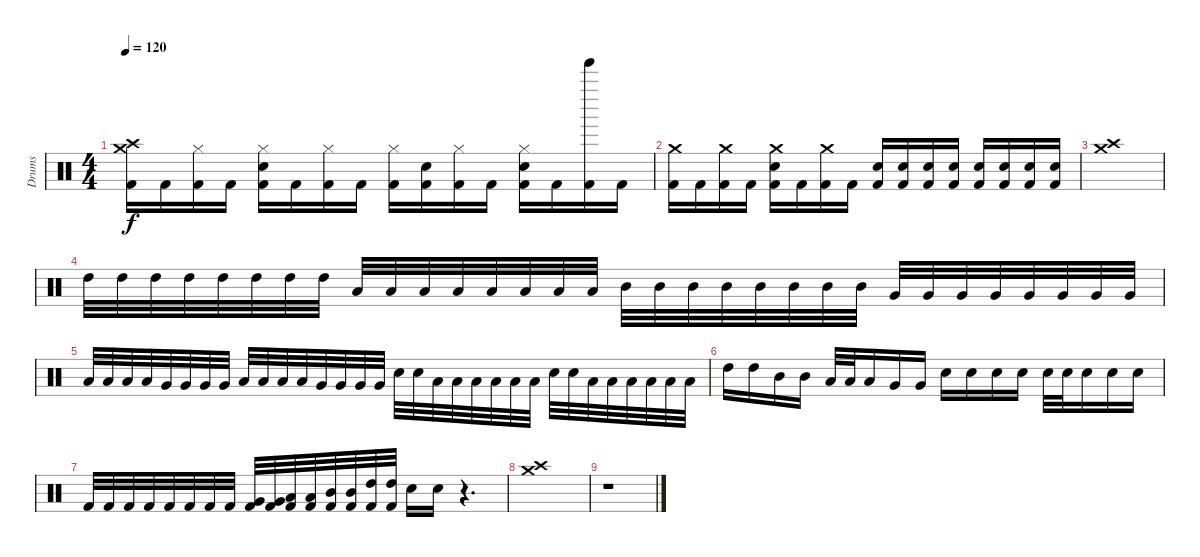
\track ("Drums" "Drums") {instrument percussion}
\staff {score}
\articulation defaults
\ts (4 4)
\tempo 120
\clef neutral
\ks c
("Crash medium (hit)" "Kick (hit) 2" "Crash high (hit)").16{dy f} "Kick (hit) 2".16 ("Hi-Hat (closed)" "Kick (hit) 2").16 "Kick (hit) 2".16 ("Hi-Hat (closed)" "Kick (hit) 2" "Snare (hit) 2").16 "Kick (hit) 2".16 ("Hi-Hat (closed)" "Kick (hit) 2").16 "Kick (hit) 2".16 ("Hi-Hat (closed)" "Kick (hit) 2").16 ("Kick (hit) 2" "Snare (hit) 2").16 ("Hi-Hat (closed)" "Kick (hit) 2").16 "Kick (hit) 2".16 ("Hi-Hat (closed)" "Kick (hit) 2" "Snare (hit) 2").16 "Kick (hit) 2".16 ("Tinkle Bell (hit)" "Kick (hit) 2").16 "Kick (hit) 2".16 |
("Crash medium (hit)" "Kick (hit) 2").16 "Kick (hit) 2".16 ("Crash medium (hit)" "Kick (hit) 2").16 "Kick (hit) 2".16 ("Crash medium (hit)" "Kick (hit) 2" "Snare (hit) 2").16 "Kick (hit) 2".16 ("Crash medium (hit)" "Kick (hit) 2").16 "Kick (hit) 2".16 ("Kick (hit) 2" "Snare (hit) 2").16 ("Kick (hit) 2" "Snare (hit) 2").16 ("Kick (hit) 2" "Snare (hit) 2").16 ("Kick (hit) 2" "Snare (hit) 2").16 ("Kick (hit) 2" "Snare (hit) 2").16 ("Kick (hit) 2" "Snare (hit) 2").16 ("Kick (hit) 2" "Snare (hit) 2").16 ("Kick (hit) 2" "Snare (hit) 2").16 |
("Crash medium (hit)" "Crash high (hit)").1 |
"High Tom (hit)".32 "High Tom (hit)".32 "High Tom (hit)".32 "High Tom (hit)".32 "High Tom (hit)".32 "High Tom (hit)".32 "High Tom (hit)".32 "High Tom (hit)".32 "Low Tom (hit)".32 "Low Tom (hit)".32 "Low Tom (hit)".32 "Low Tom (hit)".32 "Low Tom (hit)".32 "Low Tom (hit)".32 "Low Tom (hit)".32 "Low Tom (hit)".32 "Mid Tom (hit)".32 "Mid Tom (hit)".32 "Mid Tom (hit)".32 "Mid Tom (hit)".32 "Mid Tom (hit)".32 "Mid Tom (hit)".32 "Mid Tom (hit)".32 "Mid Tom (hit)".32 "Very Low Tom (hit)".32 "Very Low Tom (hit)".32 "Very Low Tom (hit)".32 "Very Low Tom (hit)".32 "Very Low Tom (hit)".32 "Very Low Tom (hit)".32 "Very Low Tom (hit)".32 "Very Low Tom (hit)".32 |
"Low Floor Tom (hit)".32 "Low Floor Tom (hit)".32 "Low Floor Tom (hit)".32 "Low Floor Tom (hit)".32 "Very Low Tom (hit)".32 "Very Low Tom (hit)".32 "Very Low Tom (hit)".32 "Very Low Tom (hit)".32 "Low Floor Tom (hit)".32 "Low Floor Tom (hit)".32 "Low Floor Tom (hit)".32 "Low Floor Tom (hit)".32 "Very Low Tom (hit)".32 "Very Low Tom (hit)".32 "Very Low Tom (hit)".32 "Very Low Tom (hit)".32 "Snare (hit) 2".32 "Snare (hit) 2".32 "Low Floor Tom (hit)".32 "Low Floor Tom (hit)".32 "Low Floor Tom (hit)".32 "Low Floor Tom (hit)".32 "Low Floor Tom (hit)".32 "Low Floor Tom (hit)".32 "Snare (hit) 2".32 "Snare (hit) 2".32 "Low Floor Tom (hit)".32 "Low Floor Tom (hit)".32 "Low Floor Tom (hit)".32 "Low Floor Tom (hit)".32 "Low Floor Tom (hit)".32 "Low Floor Tom (hit)".32 |
"High Tom (hit)".16 "High Tom (hit)".16 "Mid Tom (hit)".16 "Mid Tom (hit)".16 "Low Tom (hit)".32 "Low Tom (hit)".32 "Low Tom (hit)".16 "Very Low Tom (hit)".16 "Very Low Tom (hit)".16 "Snare (hit) 2".16 "Snare (hit) 2".16 "Snare (hit) 2".16 "Snare (hit) 2".16 "Snare (hit) 2".32 "Snare (hit) 2".32 "Snare (hit) 2".16 "Snare (hit) 2".16 "Snare (hit) 2".16 |
"Kick (hit) 2".32 "Kick (hit) 2".32 "Kick (hit) 2".32 "Kick (hit) 2".32 "Kick (hit) 2".32 "Kick (hit) 2".32 "Kick (hit) 2".32 "Kick (hit) 2".32 ("Very Low Tom (hit)" "Kick (hit) 2").32 ("Very Low Tom (hit)" "Kick (hit) 2").32 ("Low Tom (hit)" "Kick (hit) 2").32 ("Low Tom (hit)" "Kick (hit) 2").32 ("Mid Tom (hit)" "Kick (hit) 2").32 ("Mid Tom (hit)" "Kick (hit) 2").32 ("High Tom (hit)" "Kick (hit) 2").32 ("High Tom (hit)" "Kick (hit) 2").32 "Snare (hit) 2".16 "Snare (hit) 2".16 r.4{d} |
("Crash medium (hit)" "Crash high (hit)").1 |
r.1
